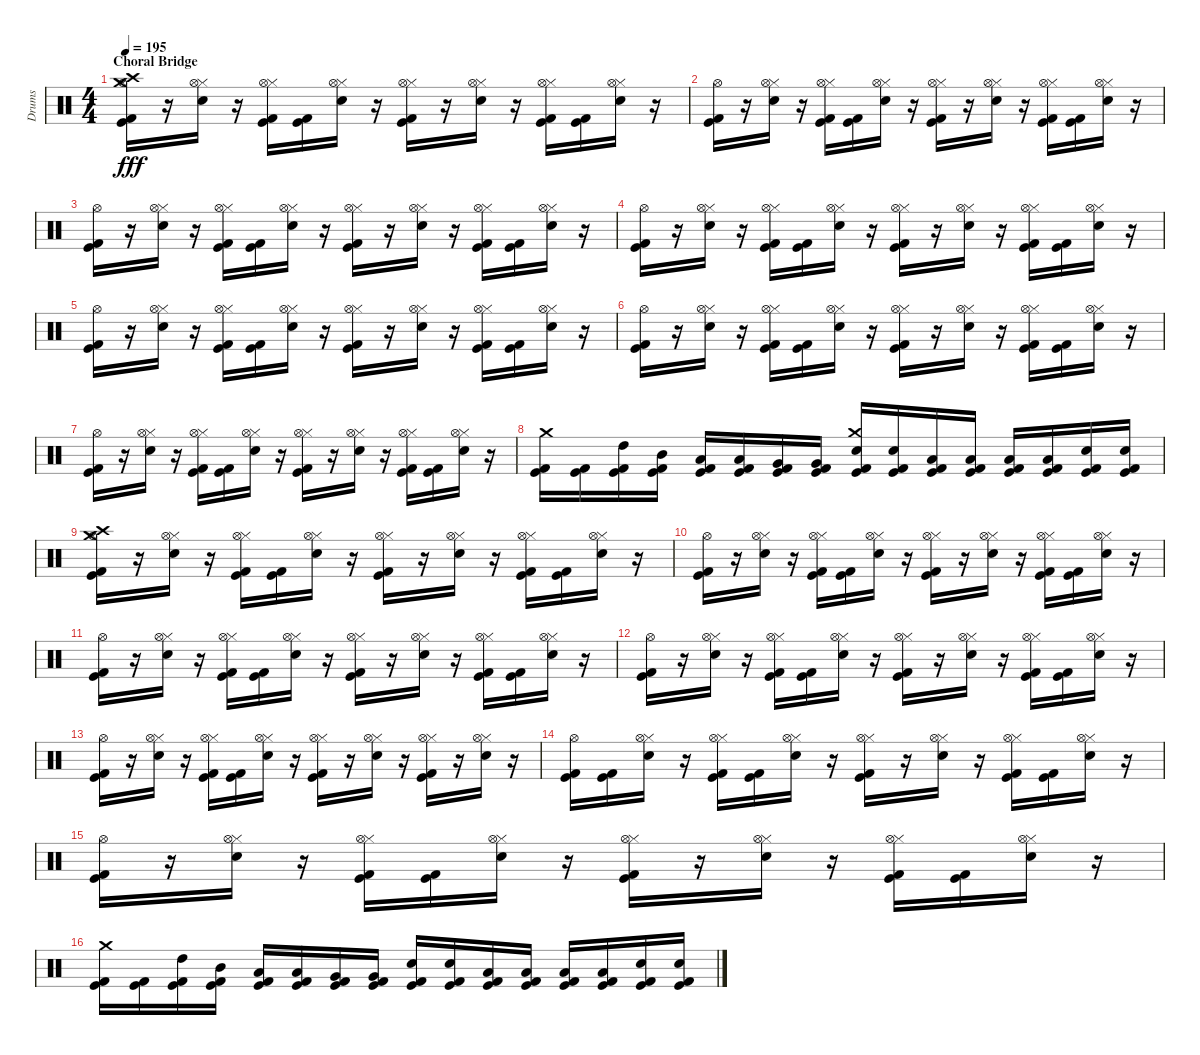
\track ("Drums" "Drums") {instrument percussion}
\staff {score}
\articulation defaults
\ts (4 4)
\section ("" "Choral Bridge")
\tempo 195
\clef neutral
\ks c
("Kick (hit) 2" "Kick (hit)" "Crash high (hit)" "Hi-Hat (open)" "Crash medium (hit)").16{dy fff} r.16 ("Snare (hit) 2" "Hi-Hat (closed)" "Hi-Hat (open)").16 r.16 ("Kick (hit) 2" "Kick (hit)" "Hi-Hat (closed)" "Hi-Hat (open)").16 ("Kick (hit) 2" "Kick (hit)").16 ("Snare (hit) 2" "Hi-Hat (closed)" "Hi-Hat (open)").16 r.16 ("Kick (hit) 2" "Kick (hit)" "Hi-Hat (closed)" "Hi-Hat (open)").16 r.16 ("Snare (hit) 2" "Hi-Hat (closed)" "Hi-Hat (open)").16 r.16 ("Kick (hit) 2" "Kick (hit)" "Hi-Hat (closed)" "Hi-Hat (open)").16 ("Kick (hit) 2" "Kick (hit)").16 ("Snare (hit) 2" "Hi-Hat (closed)" "Hi-Hat (open)").16 r.16 |
("Kick (hit) 2" "Kick (hit)" "Hi-Hat (open)").16 r.16 ("Snare (hit) 2" "Hi-Hat (closed)" "Hi-Hat (open)").16 r.16 ("Kick (hit) 2" "Kick (hit)" "Hi-Hat (closed)" "Hi-Hat (open)").16 ("Kick (hit) 2" "Kick (hit)").16 ("Snare (hit) 2" "Hi-Hat (closed)" "Hi-Hat (open)").16 r.16 ("Kick (hit) 2" "Kick (hit)" "Hi-Hat (closed)" "Hi-Hat (open)").16 r.16 ("Snare (hit) 2" "Hi-Hat (closed)" "Hi-Hat (open)").16 r.16 ("Kick (hit) 2" "Kick (hit)" "Hi-Hat (closed)" "Hi-Hat (open)").16 ("Kick (hit) 2" "Kick (hit)").16 ("Snare (hit) 2" "Hi-Hat (closed)" "Hi-Hat (open)").16 r.16 |
("Kick (hit) 2" "Kick (hit)" "Hi-Hat (open)").16 r.16 ("Snare (hit) 2" "Hi-Hat (closed)" "Hi-Hat (open)").16 r.16 ("Kick (hit) 2" "Kick (hit)" "Hi-Hat (closed)" "Hi-Hat (open)").16 ("Kick (hit) 2" "Kick (hit)").16 ("Snare (hit) 2" "Hi-Hat (closed)" "Hi-Hat (open)").16 r.16 ("Kick (hit) 2" "Kick (hit)" "Hi-Hat (closed)" "Hi-Hat (open)").16 r.16 ("Snare (hit) 2" "Hi-Hat (closed)" "Hi-Hat (open)").16 r.16 ("Kick (hit) 2" "Kick (hit)" "Hi-Hat (closed)" "Hi-Hat (open)").16 ("Kick (hit) 2" "Kick (hit)").16 ("Snare (hit) 2" "Hi-Hat (closed)" "Hi-Hat (open)").16 r.16 |
("Kick (hit) 2" "Kick (hit)" "Hi-Hat (open)").16 r.16 ("Snare (hit) 2" "Hi-Hat (closed)" "Hi-Hat (open)").16 r.16 ("Kick (hit) 2" "Kick (hit)" "Hi-Hat (closed)" "Hi-Hat (open)").16 ("Kick (hit) 2" "Kick (hit)").16 ("Snare (hit) 2" "Hi-Hat (closed)" "Hi-Hat (open)").16 r.16 ("Kick (hit) 2" "Kick (hit)" "Hi-Hat (closed)" "Hi-Hat (open)").16 r.16 ("Snare (hit) 2" "Hi-Hat (closed)" "Hi-Hat (open)").16 r.16 ("Kick (hit) 2" "Kick (hit)" "Hi-Hat (closed)" "Hi-Hat (open)").16 ("Kick (hit) 2" "Kick (hit)").16 ("Snare (hit) 2" "Hi-Hat (closed)" "Hi-Hat (open)").16 r.16 |
("Kick (hit) 2" "Kick (hit)" "Hi-Hat (open)").16 r.16 ("Snare (hit) 2" "Hi-Hat (closed)" "Hi-Hat (open)").16 r.16 ("Kick (hit) 2" "Kick (hit)" "Hi-Hat (closed)" "Hi-Hat (open)").16 ("Kick (hit) 2" "Kick (hit)").16 ("Snare (hit) 2" "Hi-Hat (closed)" "Hi-Hat (open)").16 r.16 ("Kick (hit) 2" "Kick (hit)" "Hi-Hat (closed)" "Hi-Hat (open)").16 r.16 ("Snare (hit) 2" "Hi-Hat (closed)" "Hi-Hat (open)").16 r.16 ("Kick (hit) 2" "Kick (hit)" "Hi-Hat (closed)" "Hi-Hat (open)").16 ("Kick (hit) 2" "Kick (hit)").16 ("Snare (hit) 2" "Hi-Hat (closed)" "Hi-Hat (open)").16 r.16 |
("Kick (hit) 2" "Kick (hit)" "Hi-Hat (open)").16 r.16 ("Snare (hit) 2" "Hi-Hat (closed)" "Hi-Hat (open)").16 r.16 ("Kick (hit) 2" "Kick (hit)" "Hi-Hat (closed)" "Hi-Hat (open)").16 ("Kick (hit) 2" "Kick (hit)").16 ("Snare (hit) 2" "Hi-Hat (closed)" "Hi-Hat (open)").16 r.16 ("Kick (hit) 2" "Kick (hit)" "Hi-Hat (closed)" "Hi-Hat (open)").16 r.16 ("Snare (hit) 2" "Hi-Hat (closed)" "Hi-Hat (open)").16 r.16 ("Kick (hit) 2" "Kick (hit)" "Hi-Hat (closed)" "Hi-Hat (open)").16 ("Kick (hit) 2" "Kick (hit)").16 ("Snare (hit) 2" "Hi-Hat (closed)" "Hi-Hat (open)").16 r.16 |
("Kick (hit) 2" "Kick (hit)" "Hi-Hat (open)").16 r.16 ("Snare (hit) 2" "Hi-Hat (closed)" "Hi-Hat (open)").16 r.16 ("Kick (hit) 2" "Kick (hit)" "Hi-Hat (closed)" "Hi-Hat (open)").16 ("Kick (hit) 2" "Kick (hit)").16 ("Snare (hit) 2" "Hi-Hat (closed)" "Hi-Hat (open)").16 r.16 ("Kick (hit) 2" "Kick (hit)" "Hi-Hat (closed)" "Hi-Hat (open)").16 r.16 ("Snare (hit) 2" "Hi-Hat (closed)" "Hi-Hat (open)").16 r.16 ("Kick (hit) 2" "Kick (hit)" "Hi-Hat (closed)" "Hi-Hat (open)").16 ("Kick (hit) 2" "Kick (hit)").16 ("Snare (hit) 2" "Hi-Hat (closed)" "Hi-Hat (open)").16 r.16 |
("Kick (hit) 2" "Kick (hit)" "Crash medium (hit)").16 ("Kick (hit) 2" "Kick (hit)").16 ("Kick (hit) 2" "Kick (hit)" "High Tom (hit)").16 ("Kick (hit) 2" "Kick (hit)" "Mid Tom (hit)").16 ("Kick (hit) 2" "Kick (hit)" "Low Tom (hit)").16 ("Kick (hit) 2" "Kick (hit)" "Low Tom (hit)").16 ("Kick (hit) 2" "Kick (hit)" "Very Low Tom (hit)").16 ("Kick (hit) 2" "Kick (hit)" "Very Low Tom (hit)").16 ("Kick (hit) 2" "Kick (hit)" "Snare (hit) 2" "Crash medium (hit)").16 ("Kick (hit) 2" "Kick (hit)" "Snare (hit) 2").16 ("Kick (hit) 2" "Kick (hit)" "Low Tom (hit)").16 ("Kick (hit) 2" "Kick (hit)" "Low Floor Tom (hit)").16 ("Kick (hit) 2" "Kick (hit)" "Low Floor Tom (hit)").16 ("Kick (hit) 2" "Kick (hit)" "Low Floor Tom (hit)").16 ("Kick (hit) 2" "Kick (hit)" "Snare (hit) 2").16 ("Kick (hit) 2" "Kick (hit)" "Snare (hit) 2").16 |
("Kick (hit) 2" "Kick (hit)" "Crash high (hit)" "Hi-Hat (open)" "Crash medium (hit)").16 r.16 ("Snare (hit) 2" "Hi-Hat (closed)" "Hi-Hat (open)").16 r.16 ("Kick (hit) 2" "Kick (hit)" "Hi-Hat (closed)" "Hi-Hat (open)").16 ("Kick (hit) 2" "Kick (hit)").16 ("Snare (hit) 2" "Hi-Hat (closed)" "Hi-Hat (open)").16 r.16 ("Kick (hit) 2" "Kick (hit)" "Hi-Hat (closed)" "Hi-Hat (open)").16 r.16 ("Snare (hit) 2" "Hi-Hat (closed)" "Hi-Hat (open)").16 r.16 ("Kick (hit) 2" "Kick (hit)" "Hi-Hat (closed)" "Hi-Hat (open)").16 ("Kick (hit) 2" "Kick (hit)").16 ("Snare (hit) 2" "Hi-Hat (closed)" "Hi-Hat (open)").16 r.16 |
("Kick (hit) 2" "Kick (hit)" "Hi-Hat (open)").16 r.16 ("Snare (hit) 2" "Hi-Hat (closed)" "Hi-Hat (open)").16 r.16 ("Kick (hit) 2" "Kick (hit)" "Hi-Hat (closed)" "Hi-Hat (open)").16 ("Kick (hit) 2" "Kick (hit)").16 ("Snare (hit) 2" "Hi-Hat (closed)" "Hi-Hat (open)").16 r.16 ("Kick (hit) 2" "Kick (hit)" "Hi-Hat (closed)" "Hi-Hat (open)").16 r.16 ("Snare (hit) 2" "Hi-Hat (closed)" "Hi-Hat (open)").16 r.16 ("Kick (hit) 2" "Kick (hit)" "Hi-Hat (closed)" "Hi-Hat (open)").16 ("Kick (hit) 2" "Kick (hit)").16 ("Snare (hit) 2" "Hi-Hat (closed)" "Hi-Hat (open)").16 r.16 |
("Kick (hit) 2" "Kick (hit)" "Hi-Hat (open)").16 r.16 ("Snare (hit) 2" "Hi-Hat (closed)" "Hi-Hat (open)").16 r.16 ("Kick (hit) 2" "Kick (hit)" "Hi-Hat (closed)" "Hi-Hat (open)").16 ("Kick (hit) 2" "Kick (hit)").16 ("Snare (hit) 2" "Hi-Hat (closed)" "Hi-Hat (open)").16 r.16 ("Kick (hit) 2" "Kick (hit)" "Hi-Hat (closed)" "Hi-Hat (open)").16 r.16 ("Snare (hit) 2" "Hi-Hat (closed)" "Hi-Hat (open)").16 r.16 ("Kick (hit) 2" "Kick (hit)" "Hi-Hat (closed)" "Hi-Hat (open)").16 ("Kick (hit) 2" "Kick (hit)").16 ("Snare (hit) 2" "Hi-Hat (closed)" "Hi-Hat (open)").16 r.16 |
("Kick (hit) 2" "Kick (hit)" "Hi-Hat (open)").16 r.16 ("Snare (hit) 2" "Hi-Hat (closed)" "Hi-Hat (open)").16 r.16 ("Kick (hit) 2" "Kick (hit)" "Hi-Hat (closed)" "Hi-Hat (open)").16 ("Kick (hit) 2" "Kick (hit)").16 ("Snare (hit) 2" "Hi-Hat (closed)" "Hi-Hat (open)").16 r.16 ("Kick (hit) 2" "Kick (hit)" "Hi-Hat (closed)" "Hi-Hat (open)").16 r.16 ("Snare (hit) 2" "Hi-Hat (closed)" "Hi-Hat (open)").16 r.16 ("Kick (hit) 2" "Kick (hit)" "Hi-Hat (closed)" "Hi-Hat (open)").16 ("Kick (hit) 2" "Kick (hit)").16 ("Snare (hit) 2" "Hi-Hat (closed)" "Hi-Hat (open)").16 r.16 |
("Kick (hit) 2" "Kick (hit)" "Hi-Hat (open)").16 r.16 ("Snare (hit) 2" "Hi-Hat (closed)" "Hi-Hat (open)").16 r.16 ("Kick (hit) 2" "Kick (hit)" "Hi-Hat (closed)" "Hi-Hat (open)").16 ("Kick (hit) 2" "Kick (hit)").16 ("Snare (hit) 2" "Hi-Hat (closed)" "Hi-Hat (open)").16 r.16 ("Kick (hit) 2" "Kick (hit)" "Hi-Hat (closed)" "Hi-Hat (open)").16 r.16 ("Snare (hit) 2" "Hi-Hat (closed)" "Hi-Hat (open)").16 r.16 ("Kick (hit) 2" "Kick (hit)" "Hi-Hat (closed)" "Hi-Hat (open)").16 r.16 ("Snare (hit) 2" "Hi-Hat (closed)" "Hi-Hat (open)").16 r.16 |
("Kick (hit) 2" "Kick (hit)" "Hi-Hat (open)").16 ("Kick (hit) 2" "Kick (hit)").16 ("Snare (hit) 2" "Hi-Hat (closed)" "Hi-Hat (open)").16 r.16 ("Kick (hit) 2" "Kick (hit)" "Hi-Hat (closed)" "Hi-Hat (open)").16 ("Kick (hit) 2" "Kick (hit)").16 ("Snare (hit) 2" "Hi-Hat (closed)" "Hi-Hat (open)").16 r.16 ("Kick (hit) 2" "Kick (hit)" "Hi-Hat (closed)" "Hi-Hat (open)").16 r.16 ("Snare (hit) 2" "Hi-Hat (closed)" "Hi-Hat (open)").16 r.16 ("Kick (hit) 2" "Kick (hit)" "Hi-Hat (closed)" "Hi-Hat (open)").16 ("Kick (hit) 2" "Kick (hit)").16 ("Snare (hit) 2" "Hi-Hat (closed)" "Hi-Hat (open)").16 r.16 |
("Kick (hit) 2" "Kick (hit)" "Hi-Hat (open)").16 r.16 ("Snare (hit) 2" "Hi-Hat (closed)" "Hi-Hat (open)").16 r.16 ("Kick (hit) 2" "Kick (hit)" "Hi-Hat (closed)" "Hi-Hat (open)").16 ("Kick (hit) 2" "Kick (hit)").16 ("Snare (hit) 2" "Hi-Hat (closed)" "Hi-Hat (open)").16 r.16 ("Kick (hit) 2" "Kick (hit)" "Hi-Hat (closed)" "Hi-Hat (open)").16 r.16 ("Snare (hit) 2" "Hi-Hat (closed)" "Hi-Hat (open)").16 r.16 ("Kick (hit) 2" "Kick (hit)" "Hi-Hat (closed)" "Hi-Hat (open)").16 ("Kick (hit) 2" "Kick (hit)").16 ("Snare (hit) 2" "Hi-Hat (closed)" "Hi-Hat (open)").16 r.16 |
("Kick (hit) 2" "Kick (hit)" "Crash medium (hit)").16 ("Kick (hit) 2" "Kick (hit)").16 ("Kick (hit) 2" "Kick (hit)" "High Tom (hit)").16 ("Kick (hit) 2" "Kick (hit)" "Mid Tom (hit)").16 ("Kick (hit) 2" "Kick (hit)" "Low Tom (hit)").16 ("Kick (hit) 2" "Kick (hit)" "Low Tom (hit)").16 ("Kick (hit) 2" "Kick (hit)" "Very Low Tom (hit)").16 ("Kick (hit) 2" "Kick (hit)" "Very Low Tom (hit)").16 ("Kick (hit) 2" "Kick (hit)" "Snare (hit) 2").16 ("Kick (hit) 2" "Kick (hit)" "Snare (hit) 2").16 ("Kick (hit) 2" "Kick (hit)" "Low Tom (hit)").16 ("Kick (hit) 2" "Kick (hit)" "Low Floor Tom (hit)").16 ("Kick (hit) 2" "Kick (hit)" "Low Floor Tom (hit)").16 ("Kick (hit) 2" "Kick (hit)" "Low Floor Tom (hit)").16 ("Kick (hit) 2" "Kick (hit)" "Snare (hit) 2").16 ("Kick (hit) 2" "Kick (hit)" "Snare (hit) 2").16
